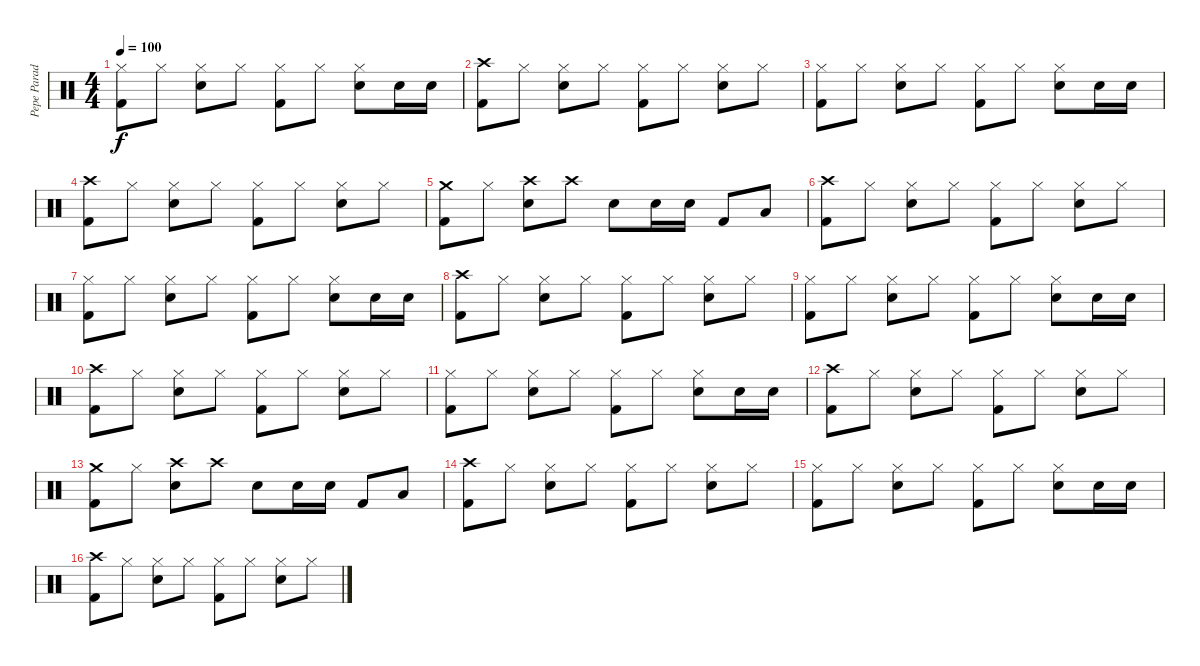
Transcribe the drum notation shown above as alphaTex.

\track ("Pepe Parada (kit de percusion)" "Pepe Parad") {instrument percussion}
\staff {score}
\articulation defaults
\ts (4 4)
\tempo 100
\clef neutral
\ks c
("Hi-Hat (closed)" "Kick (hit) 2").8{dy f} "Hi-Hat (closed)".8 ("Hi-Hat (closed)" "Snare (hit) 2").8 "Hi-Hat (closed)".8 ("Hi-Hat (closed)" "Kick (hit) 2").8 "Hi-Hat (closed)".8 ("Hi-Hat (closed)" "Snare (hit) 2").8 "Snare (hit) 2".16 "Snare (hit) 2".16 |
("Crash high (hit)" "Kick (hit) 2").8 "Hi-Hat (closed)".8 ("Hi-Hat (closed)" "Snare (hit) 2").8 "Hi-Hat (closed)".8 ("Hi-Hat (closed)" "Kick (hit) 2").8 "Hi-Hat (closed)".8 ("Hi-Hat (closed)" "Snare (hit) 2").8 "Hi-Hat (closed)".8 |
("Hi-Hat (closed)" "Kick (hit) 2").8 "Hi-Hat (closed)".8 ("Hi-Hat (closed)" "Snare (hit) 2").8 "Hi-Hat (closed)".8 ("Hi-Hat (closed)" "Kick (hit) 2").8 "Hi-Hat (closed)".8 ("Hi-Hat (closed)" "Snare (hit) 2").8 "Snare (hit) 2".16 "Snare (hit) 2".16 |
("Crash high (hit)" "Kick (hit) 2").8 "Hi-Hat (closed)".8 ("Hi-Hat (closed)" "Snare (hit) 2").8 "Hi-Hat (closed)".8 ("Hi-Hat (closed)" "Kick (hit) 2").8 "Hi-Hat (closed)".8 ("Hi-Hat (closed)" "Snare (hit) 2").8 "Hi-Hat (closed)".8 |
("Crash medium (hit)" "Kick (hit) 2").8 "Hi-Hat (closed)".8 ("Crash high (hit)" "Snare (hit) 2").8 "Crash high (hit)".8 "Snare (hit) 2".8 "Snare (hit) 2".16 "Snare (hit) 2".16 "Kick (hit) 2".8 "Low Floor Tom (hit)".8 |
("Crash high (hit)" "Kick (hit) 2").8 "Hi-Hat (closed)".8 ("Hi-Hat (closed)" "Snare (hit) 2").8 "Hi-Hat (closed)".8 ("Hi-Hat (closed)" "Kick (hit) 2").8 "Hi-Hat (closed)".8 ("Hi-Hat (closed)" "Snare (hit) 2").8 "Hi-Hat (closed)".8 |
("Hi-Hat (closed)" "Kick (hit) 2").8 "Hi-Hat (closed)".8 ("Hi-Hat (closed)" "Snare (hit) 2").8 "Hi-Hat (closed)".8 ("Hi-Hat (closed)" "Kick (hit) 2").8 "Hi-Hat (closed)".8 ("Hi-Hat (closed)" "Snare (hit) 2").8 "Snare (hit) 2".16 "Snare (hit) 2".16 |
("Crash high (hit)" "Kick (hit) 2").8 "Hi-Hat (closed)".8 ("Hi-Hat (closed)" "Snare (hit) 2").8 "Hi-Hat (closed)".8 ("Hi-Hat (closed)" "Kick (hit) 2").8 "Hi-Hat (closed)".8 ("Hi-Hat (closed)" "Snare (hit) 2").8 "Hi-Hat (closed)".8 |
("Hi-Hat (closed)" "Kick (hit) 2").8 "Hi-Hat (closed)".8 ("Hi-Hat (closed)" "Snare (hit) 2").8 "Hi-Hat (closed)".8 ("Hi-Hat (closed)" "Kick (hit) 2").8 "Hi-Hat (closed)".8 ("Hi-Hat (closed)" "Snare (hit) 2").8 "Snare (hit) 2".16 "Snare (hit) 2".16 |
("Crash high (hit)" "Kick (hit) 2").8 "Hi-Hat (closed)".8 ("Hi-Hat (closed)" "Snare (hit) 2").8 "Hi-Hat (closed)".8 ("Hi-Hat (closed)" "Kick (hit) 2").8 "Hi-Hat (closed)".8 ("Hi-Hat (closed)" "Snare (hit) 2").8 "Hi-Hat (closed)".8 |
("Hi-Hat (closed)" "Kick (hit) 2").8 "Hi-Hat (closed)".8 ("Hi-Hat (closed)" "Snare (hit) 2").8 "Hi-Hat (closed)".8 ("Hi-Hat (closed)" "Kick (hit) 2").8 "Hi-Hat (closed)".8 ("Hi-Hat (closed)" "Snare (hit) 2").8 "Snare (hit) 2".16 "Snare (hit) 2".16 |
("Crash high (hit)" "Kick (hit) 2").8 "Hi-Hat (closed)".8 ("Hi-Hat (closed)" "Snare (hit) 2").8 "Hi-Hat (closed)".8 ("Hi-Hat (closed)" "Kick (hit) 2").8 "Hi-Hat (closed)".8 ("Hi-Hat (closed)" "Snare (hit) 2").8 "Hi-Hat (closed)".8 |
("Crash medium (hit)" "Kick (hit) 2").8 "Hi-Hat (closed)".8 ("Crash high (hit)" "Snare (hit) 2").8 "Crash high (hit)".8 "Snare (hit) 2".8 "Snare (hit) 2".16 "Snare (hit) 2".16 "Kick (hit) 2".8 "Low Floor Tom (hit)".8 |
("Crash high (hit)" "Kick (hit) 2").8 "Hi-Hat (closed)".8 ("Hi-Hat (closed)" "Snare (hit) 2").8 "Hi-Hat (closed)".8 ("Hi-Hat (closed)" "Kick (hit) 2").8 "Hi-Hat (closed)".8 ("Hi-Hat (closed)" "Snare (hit) 2").8 "Hi-Hat (closed)".8 |
("Hi-Hat (closed)" "Kick (hit) 2").8 "Hi-Hat (closed)".8 ("Hi-Hat (closed)" "Snare (hit) 2").8 "Hi-Hat (closed)".8 ("Hi-Hat (closed)" "Kick (hit) 2").8 "Hi-Hat (closed)".8 ("Hi-Hat (closed)" "Snare (hit) 2").8 "Snare (hit) 2".16 "Snare (hit) 2".16 |
("Crash high (hit)" "Kick (hit) 2").8 "Hi-Hat (closed)".8 ("Hi-Hat (closed)" "Snare (hit) 2").8 "Hi-Hat (closed)".8 ("Hi-Hat (closed)" "Kick (hit) 2").8 "Hi-Hat (closed)".8 ("Hi-Hat (closed)" "Snare (hit) 2").8 "Hi-Hat (closed)".8
